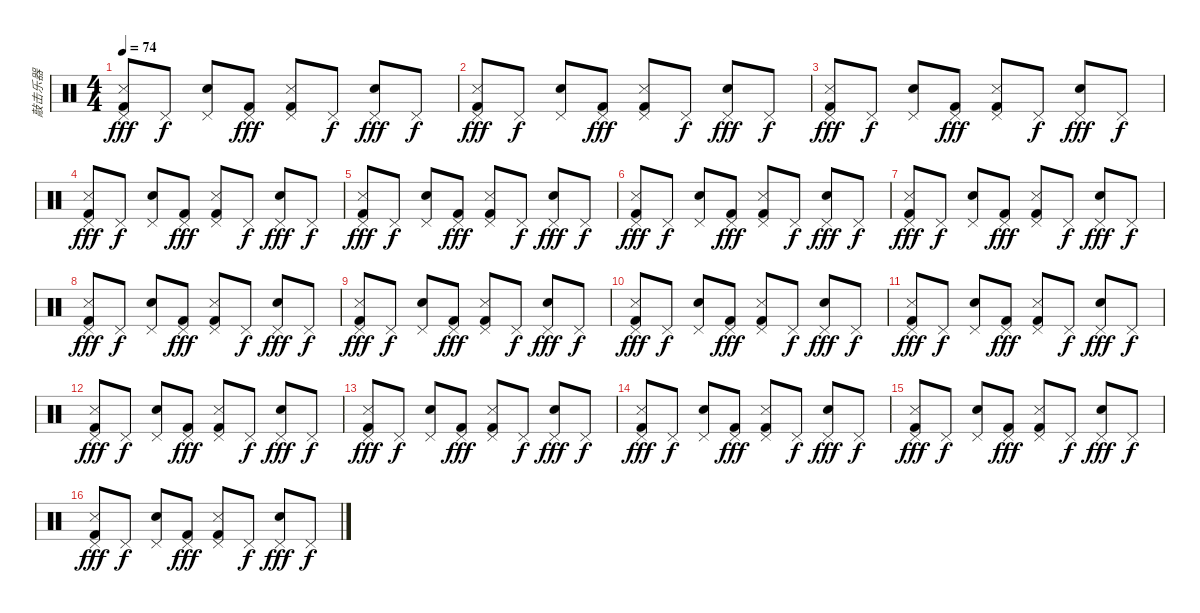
\track ("敲击乐器" "敲击乐器") {instrument percussion}
\staff {score}
\articulation defaults
\ts (4 4)
\tempo 74
\clef neutral
\ks c
("Snare (side stick) 3" "Pedal Hi-Hat (hit)" "Kick (hit) 2").8{dy fff} "Pedal Hi-Hat (hit)".8{dy f} ("Hand Clap (hit)" "Pedal Hi-Hat (hit)").8 ("Pedal Hi-Hat (hit)" "Kick (hit) 2").8{dy fff} ("Snare (side stick) 3" "Pedal Hi-Hat (hit)" "Kick (hit) 2").8 "Pedal Hi-Hat (hit)".8{dy f} ("Hand Clap (hit)" "Pedal Hi-Hat (hit)").8{dy fff} "Pedal Hi-Hat (hit)".8{dy f} |
("Snare (side stick) 3" "Pedal Hi-Hat (hit)" "Kick (hit) 2").8{dy fff} "Pedal Hi-Hat (hit)".8{dy f} ("Hand Clap (hit)" "Pedal Hi-Hat (hit)").8 ("Pedal Hi-Hat (hit)" "Kick (hit) 2").8{dy fff} ("Snare (side stick) 3" "Pedal Hi-Hat (hit)" "Kick (hit) 2").8 "Pedal Hi-Hat (hit)".8{dy f} ("Hand Clap (hit)" "Pedal Hi-Hat (hit)").8{dy fff} "Pedal Hi-Hat (hit)".8{dy f} |
("Snare (side stick) 3" "Pedal Hi-Hat (hit)" "Kick (hit) 2").8{dy fff} "Pedal Hi-Hat (hit)".8{dy f} ("Hand Clap (hit)" "Pedal Hi-Hat (hit)").8 ("Pedal Hi-Hat (hit)" "Kick (hit) 2").8{dy fff} ("Snare (side stick) 3" "Pedal Hi-Hat (hit)" "Kick (hit) 2").8 "Pedal Hi-Hat (hit)".8{dy f} ("Hand Clap (hit)" "Pedal Hi-Hat (hit)").8{dy fff} "Pedal Hi-Hat (hit)".8{dy f} |
("Snare (side stick) 3" "Pedal Hi-Hat (hit)" "Kick (hit) 2").8{dy fff} "Pedal Hi-Hat (hit)".8{dy f} ("Hand Clap (hit)" "Pedal Hi-Hat (hit)").8 ("Pedal Hi-Hat (hit)" "Kick (hit) 2").8{dy fff} ("Snare (side stick) 3" "Pedal Hi-Hat (hit)" "Kick (hit) 2").8 "Pedal Hi-Hat (hit)".8{dy f} ("Hand Clap (hit)" "Pedal Hi-Hat (hit)").8{dy fff} "Pedal Hi-Hat (hit)".8{dy f} |
("Snare (side stick) 3" "Pedal Hi-Hat (hit)" "Kick (hit) 2").8{dy fff} "Pedal Hi-Hat (hit)".8{dy f} ("Hand Clap (hit)" "Pedal Hi-Hat (hit)").8 ("Pedal Hi-Hat (hit)" "Kick (hit) 2").8{dy fff} ("Snare (side stick) 3" "Pedal Hi-Hat (hit)" "Kick (hit) 2").8 "Pedal Hi-Hat (hit)".8{dy f} ("Hand Clap (hit)" "Pedal Hi-Hat (hit)").8{dy fff} "Pedal Hi-Hat (hit)".8{dy f} |
("Snare (side stick) 3" "Pedal Hi-Hat (hit)" "Kick (hit) 2").8{dy fff} "Pedal Hi-Hat (hit)".8{dy f} ("Hand Clap (hit)" "Pedal Hi-Hat (hit)").8 ("Pedal Hi-Hat (hit)" "Kick (hit) 2").8{dy fff} ("Snare (side stick) 3" "Pedal Hi-Hat (hit)" "Kick (hit) 2").8 "Pedal Hi-Hat (hit)".8{dy f} ("Hand Clap (hit)" "Pedal Hi-Hat (hit)").8{dy fff} "Pedal Hi-Hat (hit)".8{dy f} |
("Snare (side stick) 3" "Pedal Hi-Hat (hit)" "Kick (hit) 2").8{dy fff} "Pedal Hi-Hat (hit)".8{dy f} ("Hand Clap (hit)" "Pedal Hi-Hat (hit)").8 ("Pedal Hi-Hat (hit)" "Kick (hit) 2").8{dy fff} ("Snare (side stick) 3" "Pedal Hi-Hat (hit)" "Kick (hit) 2").8 "Pedal Hi-Hat (hit)".8{dy f} ("Hand Clap (hit)" "Pedal Hi-Hat (hit)").8{dy fff} "Pedal Hi-Hat (hit)".8{dy f} |
("Snare (side stick) 3" "Pedal Hi-Hat (hit)" "Kick (hit) 2").8{dy fff} "Pedal Hi-Hat (hit)".8{dy f} ("Hand Clap (hit)" "Pedal Hi-Hat (hit)").8 ("Pedal Hi-Hat (hit)" "Kick (hit) 2").8{dy fff} ("Snare (side stick) 3" "Pedal Hi-Hat (hit)" "Kick (hit) 2").8 "Pedal Hi-Hat (hit)".8{dy f} ("Hand Clap (hit)" "Pedal Hi-Hat (hit)").8{dy fff} "Pedal Hi-Hat (hit)".8{dy f} |
("Snare (side stick) 3" "Pedal Hi-Hat (hit)" "Kick (hit) 2").8{dy fff} "Pedal Hi-Hat (hit)".8{dy f} ("Hand Clap (hit)" "Pedal Hi-Hat (hit)").8 ("Pedal Hi-Hat (hit)" "Kick (hit) 2").8{dy fff} ("Snare (side stick) 3" "Pedal Hi-Hat (hit)" "Kick (hit) 2").8 "Pedal Hi-Hat (hit)".8{dy f} ("Hand Clap (hit)" "Pedal Hi-Hat (hit)").8{dy fff} "Pedal Hi-Hat (hit)".8{dy f} |
("Snare (side stick) 3" "Pedal Hi-Hat (hit)" "Kick (hit) 2").8{dy fff} "Pedal Hi-Hat (hit)".8{dy f} ("Hand Clap (hit)" "Pedal Hi-Hat (hit)").8 ("Pedal Hi-Hat (hit)" "Kick (hit) 2").8{dy fff} ("Snare (side stick) 3" "Pedal Hi-Hat (hit)" "Kick (hit) 2").8 "Pedal Hi-Hat (hit)".8{dy f} ("Hand Clap (hit)" "Pedal Hi-Hat (hit)").8{dy fff} "Pedal Hi-Hat (hit)".8{dy f} |
("Snare (side stick) 3" "Pedal Hi-Hat (hit)" "Kick (hit) 2").8{dy fff} "Pedal Hi-Hat (hit)".8{dy f} ("Hand Clap (hit)" "Pedal Hi-Hat (hit)").8 ("Pedal Hi-Hat (hit)" "Kick (hit) 2").8{dy fff} ("Snare (side stick) 3" "Pedal Hi-Hat (hit)" "Kick (hit) 2").8 "Pedal Hi-Hat (hit)".8{dy f} ("Hand Clap (hit)" "Pedal Hi-Hat (hit)").8{dy fff} "Pedal Hi-Hat (hit)".8{dy f} |
("Snare (side stick) 3" "Pedal Hi-Hat (hit)" "Kick (hit) 2").8{dy fff} "Pedal Hi-Hat (hit)".8{dy f} ("Hand Clap (hit)" "Pedal Hi-Hat (hit)").8 ("Pedal Hi-Hat (hit)" "Kick (hit) 2").8{dy fff} ("Snare (side stick) 3" "Pedal Hi-Hat (hit)" "Kick (hit) 2").8 "Pedal Hi-Hat (hit)".8{dy f} ("Hand Clap (hit)" "Pedal Hi-Hat (hit)").8{dy fff} "Pedal Hi-Hat (hit)".8{dy f} |
("Snare (side stick) 3" "Pedal Hi-Hat (hit)" "Kick (hit) 2").8{dy fff} "Pedal Hi-Hat (hit)".8{dy f} ("Hand Clap (hit)" "Pedal Hi-Hat (hit)").8 ("Pedal Hi-Hat (hit)" "Kick (hit) 2").8{dy fff} ("Snare (side stick) 3" "Pedal Hi-Hat (hit)" "Kick (hit) 2").8 "Pedal Hi-Hat (hit)".8{dy f} ("Hand Clap (hit)" "Pedal Hi-Hat (hit)").8{dy fff} "Pedal Hi-Hat (hit)".8{dy f} |
("Snare (side stick) 3" "Pedal Hi-Hat (hit)" "Kick (hit) 2").8{dy fff} "Pedal Hi-Hat (hit)".8{dy f} ("Hand Clap (hit)" "Pedal Hi-Hat (hit)").8 ("Pedal Hi-Hat (hit)" "Kick (hit) 2").8{dy fff} ("Snare (side stick) 3" "Pedal Hi-Hat (hit)" "Kick (hit) 2").8 "Pedal Hi-Hat (hit)".8{dy f} ("Hand Clap (hit)" "Pedal Hi-Hat (hit)").8{dy fff} "Pedal Hi-Hat (hit)".8{dy f} |
("Snare (side stick) 3" "Pedal Hi-Hat (hit)" "Kick (hit) 2").8{dy fff} "Pedal Hi-Hat (hit)".8{dy f} ("Hand Clap (hit)" "Pedal Hi-Hat (hit)").8 ("Pedal Hi-Hat (hit)" "Kick (hit) 2").8{dy fff} ("Snare (side stick) 3" "Pedal Hi-Hat (hit)" "Kick (hit) 2").8 "Pedal Hi-Hat (hit)".8{dy f} ("Hand Clap (hit)" "Pedal Hi-Hat (hit)").8{dy fff} "Pedal Hi-Hat (hit)".8{dy f} |
("Snare (side stick) 3" "Pedal Hi-Hat (hit)" "Kick (hit) 2").8{dy fff} "Pedal Hi-Hat (hit)".8{dy f} ("Hand Clap (hit)" "Pedal Hi-Hat (hit)").8 ("Pedal Hi-Hat (hit)" "Kick (hit) 2").8{dy fff} ("Snare (side stick) 3" "Pedal Hi-Hat (hit)" "Kick (hit) 2").8 "Pedal Hi-Hat (hit)".8{dy f} ("Hand Clap (hit)" "Pedal Hi-Hat (hit)").8{dy fff} "Pedal Hi-Hat (hit)".8{dy f}
